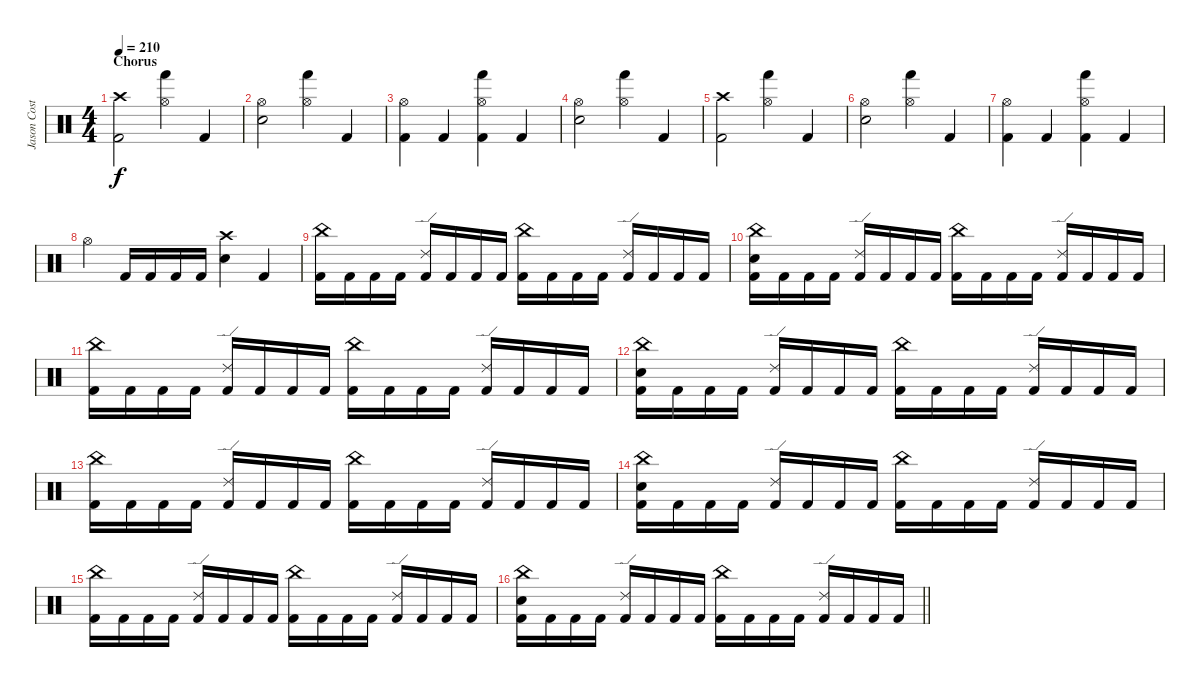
\track ("Jason Costa" "Jason Cost") {instrument percussion}
\staff {score}
\articulation defaults
\ts (4 4)
\section ("" "Chorus")
\tempo 210
\clef neutral
\ks c
("Crash high (hit)" "Kick (hit) 2").2{dy f} ("Hi-Hat (open)" "Hand (hit)").4 "Kick (hit) 2".4 |
("Hi-Hat (open)" "Electric Snare (hit)").2 ("Hi-Hat (open)" "Hand (hit)").4 "Kick (hit) 2".4 |
("Hi-Hat (open)" "Kick (hit) 2").4 "Kick (hit) 2".4 ("Hi-Hat (open)" "Hand (hit)" "Kick (hit) 2").4 "Kick (hit) 2".4 |
("Hi-Hat (open)" "Electric Snare (hit)").2 ("Hi-Hat (open)" "Hand (hit)").4 "Kick (hit) 2".4 |
("Crash high (hit)" "Kick (hit) 2").2 ("Hi-Hat (open)" "Hand (hit)").4 "Kick (hit) 2".4 |
("Hi-Hat (open)" "Electric Snare (hit)").2 ("Hi-Hat (open)" "Hand (hit)").4 "Kick (hit) 2".4 |
("Hi-Hat (open)" "Kick (hit) 2").4 "Kick (hit) 2".4 ("Hi-Hat (open)" "Hand (hit)" "Kick (hit) 2").4 "Kick (hit) 2".4 |
"Hi-Hat (open)".4 "Kick (hit) 2".16 "Kick (hit) 2".16 "Kick (hit) 2".16 "Kick (hit) 2".16 ("Crash high (hit)" "Electric Snare (hit)").4 "Kick (hit) 2".4 |
("China (hit)" "Kick (hit) 2").16 "Kick (hit) 2".16 "Kick (hit) 2".16 "Kick (hit) 2".16 ("Ride (edge) 2" "Kick (hit) 2").16 "Kick (hit) 2".16 "Kick (hit) 2".16 "Kick (hit) 2".16 ("China (hit)" "Kick (hit) 2").16 "Kick (hit) 2".16 "Kick (hit) 2".16 "Kick (hit) 2".16 ("Ride (edge) 2" "Kick (hit) 2").16 "Kick (hit) 2".16 "Kick (hit) 2".16 "Kick (hit) 2".16 |
("China (hit)" "Electric Snare (hit)" "Kick (hit) 2").16 "Kick (hit) 2".16 "Kick (hit) 2".16 "Kick (hit) 2".16 ("Ride (edge) 2" "Kick (hit) 2").16 "Kick (hit) 2".16 "Kick (hit) 2".16 "Kick (hit) 2".16 ("China (hit)" "Kick (hit) 2").16 "Kick (hit) 2".16 "Kick (hit) 2".16 "Kick (hit) 2".16 ("Ride (edge) 2" "Kick (hit) 2").16 "Kick (hit) 2".16 "Kick (hit) 2".16 "Kick (hit) 2".16 |
("China (hit)" "Kick (hit) 2").16 "Kick (hit) 2".16 "Kick (hit) 2".16 "Kick (hit) 2".16 ("Ride (edge) 2" "Kick (hit) 2").16 "Kick (hit) 2".16 "Kick (hit) 2".16 "Kick (hit) 2".16 ("China (hit)" "Kick (hit) 2").16 "Kick (hit) 2".16 "Kick (hit) 2".16 "Kick (hit) 2".16 ("Ride (edge) 2" "Kick (hit) 2").16 "Kick (hit) 2".16 "Kick (hit) 2".16 "Kick (hit) 2".16 |
("China (hit)" "Electric Snare (hit)" "Kick (hit) 2").16 "Kick (hit) 2".16 "Kick (hit) 2".16 "Kick (hit) 2".16 ("Ride (edge) 2" "Kick (hit) 2").16 "Kick (hit) 2".16 "Kick (hit) 2".16 "Kick (hit) 2".16 ("China (hit)" "Kick (hit) 2").16 "Kick (hit) 2".16 "Kick (hit) 2".16 "Kick (hit) 2".16 ("Ride (edge) 2" "Kick (hit) 2").16 "Kick (hit) 2".16 "Kick (hit) 2".16 "Kick (hit) 2".16 |
("China (hit)" "Kick (hit) 2").16 "Kick (hit) 2".16 "Kick (hit) 2".16 "Kick (hit) 2".16 ("Ride (edge) 2" "Kick (hit) 2").16 "Kick (hit) 2".16 "Kick (hit) 2".16 "Kick (hit) 2".16 ("China (hit)" "Kick (hit) 2").16 "Kick (hit) 2".16 "Kick (hit) 2".16 "Kick (hit) 2".16 ("Ride (edge) 2" "Kick (hit) 2").16 "Kick (hit) 2".16 "Kick (hit) 2".16 "Kick (hit) 2".16 |
("China (hit)" "Electric Snare (hit)" "Kick (hit) 2").16 "Kick (hit) 2".16 "Kick (hit) 2".16 "Kick (hit) 2".16 ("Ride (edge) 2" "Kick (hit) 2").16 "Kick (hit) 2".16 "Kick (hit) 2".16 "Kick (hit) 2".16 ("China (hit)" "Kick (hit) 2").16 "Kick (hit) 2".16 "Kick (hit) 2".16 "Kick (hit) 2".16 ("Ride (edge) 2" "Kick (hit) 2").16 "Kick (hit) 2".16 "Kick (hit) 2".16 "Kick (hit) 2".16 |
("China (hit)" "Kick (hit) 2").16 "Kick (hit) 2".16 "Kick (hit) 2".16 "Kick (hit) 2".16 ("Ride (edge) 2" "Kick (hit) 2").16 "Kick (hit) 2".16 "Kick (hit) 2".16 "Kick (hit) 2".16 ("China (hit)" "Kick (hit) 2").16 "Kick (hit) 2".16 "Kick (hit) 2".16 "Kick (hit) 2".16 ("Ride (edge) 2" "Kick (hit) 2").16 "Kick (hit) 2".16 "Kick (hit) 2".16 "Kick (hit) 2".16 |
\barLineRight lightlight
("China (hit)" "Electric Snare (hit)" "Kick (hit) 2").16 "Kick (hit) 2".16 "Kick (hit) 2".16 "Kick (hit) 2".16 ("Ride (edge) 2" "Kick (hit) 2").16 "Kick (hit) 2".16 "Kick (hit) 2".16 "Kick (hit) 2".16 ("China (hit)" "Kick (hit) 2").16 "Kick (hit) 2".16 "Kick (hit) 2".16 "Kick (hit) 2".16 ("Ride (edge) 2" "Kick (hit) 2").16 "Kick (hit) 2".16 "Kick (hit) 2".16 "Kick (hit) 2".16
